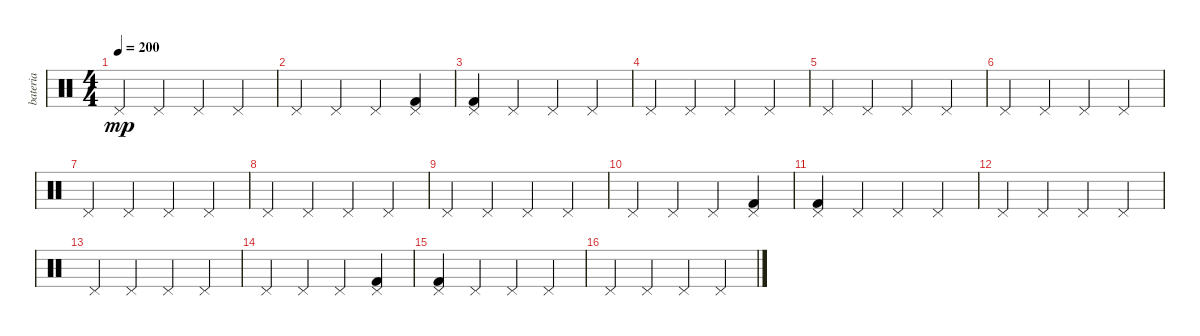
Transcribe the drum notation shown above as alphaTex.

\track ("bateria" "bateria") {instrument percussion}
\staff {score}
\articulation defaults
\ts (4 4)
\tempo 200
\clef neutral
\ks c "Pedal Hi-Hat (hit)".4{dy mp} "Pedal Hi-Hat (hit)".4 "Pedal Hi-Hat (hit)".4 "Pedal Hi-Hat (hit)".4
|
"Pedal Hi-Hat (hit)".4 "Pedal Hi-Hat (hit)".4 "Pedal Hi-Hat (hit)".4 ("Pedal Hi-Hat (hit)" "Kick (hit) 2").4 |
("Pedal Hi-Hat (hit)" "Kick (hit) 2").4 "Pedal Hi-Hat (hit)".4 "Pedal Hi-Hat (hit)".4 "Pedal Hi-Hat (hit)".4 |
"Pedal Hi-Hat (hit)".4 "Pedal Hi-Hat (hit)".4 "Pedal Hi-Hat (hit)".4 "Pedal Hi-Hat (hit)".4 |
"Pedal Hi-Hat (hit)".4 "Pedal Hi-Hat (hit)".4 "Pedal Hi-Hat (hit)".4 "Pedal Hi-Hat (hit)".4 |
"Pedal Hi-Hat (hit)".4 "Pedal Hi-Hat (hit)".4 "Pedal Hi-Hat (hit)".4 "Pedal Hi-Hat (hit)".4 |
"Pedal Hi-Hat (hit)".4 "Pedal Hi-Hat (hit)".4 "Pedal Hi-Hat (hit)".4 "Pedal Hi-Hat (hit)".4 |
"Pedal Hi-Hat (hit)".4 "Pedal Hi-Hat (hit)".4 "Pedal Hi-Hat (hit)".4 "Pedal Hi-Hat (hit)".4 |
"Pedal Hi-Hat (hit)".4 "Pedal Hi-Hat (hit)".4 "Pedal Hi-Hat (hit)".4 "Pedal Hi-Hat (hit)".4 |
"Pedal Hi-Hat (hit)".4 "Pedal Hi-Hat (hit)".4 "Pedal Hi-Hat (hit)".4 ("Pedal Hi-Hat (hit)" "Kick (hit) 2").4 |
("Pedal Hi-Hat (hit)" "Kick (hit) 2").4 "Pedal Hi-Hat (hit)".4 "Pedal Hi-Hat (hit)".4 "Pedal Hi-Hat (hit)".4 |
"Pedal Hi-Hat (hit)".4 "Pedal Hi-Hat (hit)".4 "Pedal Hi-Hat (hit)".4 "Pedal Hi-Hat (hit)".4 |
"Pedal Hi-Hat (hit)".4 "Pedal Hi-Hat (hit)".4 "Pedal Hi-Hat (hit)".4 "Pedal Hi-Hat (hit)".4 |
"Pedal Hi-Hat (hit)".4 "Pedal Hi-Hat (hit)".4 "Pedal Hi-Hat (hit)".4 ("Pedal Hi-Hat (hit)" "Kick (hit) 2").4 |
("Pedal Hi-Hat (hit)" "Kick (hit) 2").4 "Pedal Hi-Hat (hit)".4 "Pedal Hi-Hat (hit)".4 "Pedal Hi-Hat (hit)".4 |
"Pedal Hi-Hat (hit)".4 "Pedal Hi-Hat (hit)".4 "Pedal Hi-Hat (hit)".4 "Pedal Hi-Hat (hit)".4
